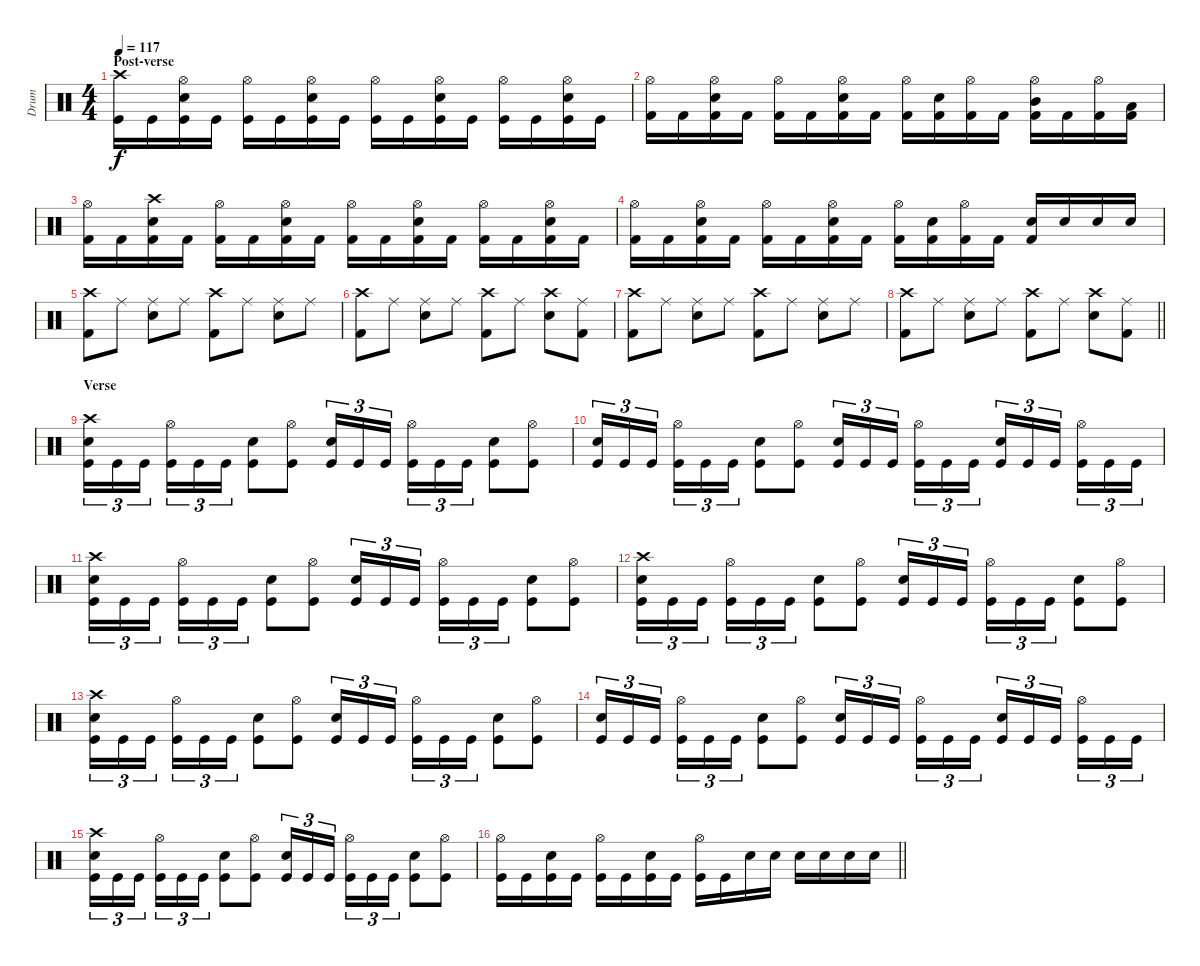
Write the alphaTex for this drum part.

\track ("Drum" "Drum") {instrument percussion}
\staff {score}
\articulation defaults
\ts (4 4)
\section ("" "Post-verse")
\tempo 117
\clef neutral
\ks c
("Crash high (hit)" "Kick (hit)").16{dy f} "Kick (hit)".16 ("Hi-Hat (open)" "Snare (hit) 2" "Kick (hit)").16 "Kick (hit)".16 ("Hi-Hat (open)" "Kick (hit)").16 "Kick (hit)".16 ("Hi-Hat (open)" "Snare (hit) 2" "Kick (hit)").16 "Kick (hit)".16 ("Hi-Hat (open)" "Kick (hit)").16 "Kick (hit)".16 ("Hi-Hat (open)" "Snare (hit) 2" "Kick (hit)").16 "Kick (hit)".16 ("Hi-Hat (open)" "Kick (hit)").16 "Kick (hit)".16 ("Hi-Hat (open)" "Snare (hit) 2" "Kick (hit)").16 "Kick (hit)".16 |
("Hi-Hat (open)" "Kick (hit) 2").16 "Kick (hit) 2".16 ("Hi-Hat (open)" "Electric Snare (hit)" "Kick (hit) 2").16 "Kick (hit) 2".16 ("Hi-Hat (open)" "Kick (hit) 2").16 "Kick (hit) 2".16 ("Hi-Hat (open)" "Electric Snare (hit)" "Kick (hit) 2").16 "Kick (hit) 2".16 ("Hi-Hat (open)" "Kick (hit) 2").16 ("Electric Snare (hit)" "Kick (hit) 2").16 ("Hi-Hat (open)" "Kick (hit) 2").16 "Kick (hit) 2".16 ("Hi-Hat (open)" "Mid Tom (hit)" "Kick (hit) 2").16 "Kick (hit) 2".16 ("Hi-Hat (open)" "Kick (hit) 2").16 ("Low Tom (hit)" "Kick (hit) 2").16 |
("Hi-Hat (open)" "Kick (hit) 2").16 "Kick (hit) 2".16 ("Crash high (hit)" "Electric Snare (hit)" "Kick (hit) 2").16 "Kick (hit) 2".16 ("Hi-Hat (open)" "Kick (hit) 2").16 "Kick (hit) 2".16 ("Hi-Hat (open)" "Electric Snare (hit)" "Kick (hit) 2").16 "Kick (hit) 2".16 ("Hi-Hat (open)" "Kick (hit) 2").16 "Kick (hit) 2".16 ("Hi-Hat (open)" "Electric Snare (hit)" "Kick (hit) 2").16 "Kick (hit) 2".16 ("Hi-Hat (open)" "Kick (hit) 2").16 "Kick (hit) 2".16 ("Hi-Hat (open)" "Electric Snare (hit)" "Kick (hit) 2").16 "Kick (hit) 2".16 |
("Hi-Hat (open)" "Kick (hit) 2").16 "Kick (hit) 2".16 ("Hi-Hat (open)" "Electric Snare (hit)" "Kick (hit) 2").16 "Kick (hit) 2".16 ("Hi-Hat (open)" "Kick (hit) 2").16 "Kick (hit) 2".16 ("Hi-Hat (open)" "Electric Snare (hit)" "Kick (hit) 2").16 "Kick (hit) 2".16 ("Hi-Hat (open)" "Kick (hit) 2").16 ("Electric Snare (hit)" "Kick (hit) 2").16 ("Hi-Hat (open)" "Kick (hit) 2").16 "Kick (hit) 2".16 ("Electric Snare (hit)" "Kick (hit) 2").16 "Electric Snare (hit)".16 "Electric Snare (hit)".16 "Electric Snare (hit)".16 |
("Crash high (hit)" "Kick (hit) 2").8 "Ride (middle)".8 ("Ride (middle)" "Electric Snare (hit)").8 "Ride (middle)".8 ("Crash high (hit)" "Kick (hit) 2").8 "Ride (middle)".8 ("Ride (middle)" "Electric Snare (hit)").8 "Ride (middle)".8 |
("Crash high (hit)" "Kick (hit) 2").8 "Ride (middle)".8 ("Ride (middle)" "Electric Snare (hit)").8 "Ride (middle)".8 ("Crash high (hit)" "Kick (hit) 2").8 "Ride (middle)".8 ("Crash high (hit)" "Electric Snare (hit)").8 ("Ride (middle)" "Kick (hit) 2").8 |
("Crash high (hit)" "Kick (hit) 2").8 "Ride (middle)".8 ("Ride (middle)" "Electric Snare (hit)").8 "Ride (middle)".8 ("Crash high (hit)" "Kick (hit) 2").8 "Ride (middle)".8 ("Ride (middle)" "Electric Snare (hit)").8 "Ride (middle)".8 |
\barLineRight lightlight
("Crash high (hit)" "Kick (hit) 2").8 "Ride (middle)".8 ("Ride (middle)" "Electric Snare (hit)").8 "Ride (middle)".8 ("Crash high (hit)" "Kick (hit) 2").8 "Ride (middle)".8 ("Crash high (hit)" "Electric Snare (hit)").8 ("Ride (middle)" "Kick (hit) 2").8 |
\section ("" "Verse")
("Crash high (hit)" "Kick (hit)" "Snare (hit) 2").16{tu (3 2)} "Kick (hit)".16{tu (3 2)} "Kick (hit)".16{tu (3 2) beam splitsecondary} ("Kick (hit)" "Hi-Hat (open)").16{tu (3 2)} "Kick (hit)".16{tu (3 2)} "Kick (hit)".16{tu (3 2)} ("Kick (hit)" "Snare (hit) 2").8 ("Kick (hit)" "Hi-Hat (open)").8 ("Kick (hit)" "Snare (hit) 2").16{tu (3 2)} "Kick (hit)".16{tu (3 2)} "Kick (hit)".16{tu (3 2) beam splitsecondary} ("Kick (hit)" "Hi-Hat (open)").16{tu (3 2)} "Kick (hit)".16{tu (3 2)} "Kick (hit)".16{tu (3 2)} ("Kick (hit)" "Snare (hit) 2").8 ("Kick (hit)" "Hi-Hat (open)").8 |
("Kick (hit)" "Snare (hit) 2").16{tu (3 2)} "Kick (hit)".16{tu (3 2)} "Kick (hit)".16{tu (3 2) beam splitsecondary} ("Kick (hit)" "Hi-Hat (open)").16{tu (3 2)} "Kick (hit)".16{tu (3 2)} "Kick (hit)".16{tu (3 2)} ("Kick (hit)" "Snare (hit) 2").8 ("Kick (hit)" "Hi-Hat (open)").8 ("Kick (hit)" "Snare (hit) 2").16{tu (3 2)} "Kick (hit)".16{tu (3 2)} "Kick (hit)".16{tu (3 2) beam splitsecondary} ("Kick (hit)" "Hi-Hat (open)").16{tu (3 2)} "Kick (hit)".16{tu (3 2)} "Kick (hit)".16{tu (3 2)} ("Kick (hit)" "Snare (hit) 2").16{tu (3 2)} "Kick (hit)".16{tu (3 2)} "Kick (hit)".16{tu (3 2) beam splitsecondary} ("Kick (hit)" "Hi-Hat (open)").16{tu (3 2)} "Kick (hit)".16{tu (3 2)} "Kick (hit)".16{tu (3 2)} |
("Crash high (hit)" "Kick (hit)" "Snare (hit) 2").16{tu (3 2)} "Kick (hit)".16{tu (3 2)} "Kick (hit)".16{tu (3 2) beam splitsecondary} ("Kick (hit)" "Hi-Hat (open)").16{tu (3 2)} "Kick (hit)".16{tu (3 2)} "Kick (hit)".16{tu (3 2)} ("Kick (hit)" "Snare (hit) 2").8 ("Kick (hit)" "Hi-Hat (open)").8 ("Kick (hit)" "Snare (hit) 2").16{tu (3 2)} "Kick (hit)".16{tu (3 2)} "Kick (hit)".16{tu (3 2) beam splitsecondary} ("Kick (hit)" "Hi-Hat (open)").16{tu (3 2)} "Kick (hit)".16{tu (3 2)} "Kick (hit)".16{tu (3 2)} ("Kick (hit)" "Snare (hit) 2").8 ("Kick (hit)" "Hi-Hat (open)").8 |
("Crash high (hit)" "Kick (hit)" "Snare (hit) 2").16{tu (3 2)} "Kick (hit)".16{tu (3 2)} "Kick (hit)".16{tu (3 2) beam splitsecondary} ("Kick (hit)" "Hi-Hat (open)").16{tu (3 2)} "Kick (hit)".16{tu (3 2)} "Kick (hit)".16{tu (3 2)} ("Kick (hit)" "Snare (hit) 2").8 ("Kick (hit)" "Hi-Hat (open)").8 ("Kick (hit)" "Snare (hit) 2").16{tu (3 2)} "Kick (hit)".16{tu (3 2)} "Kick (hit)".16{tu (3 2) beam splitsecondary} ("Kick (hit)" "Hi-Hat (open)").16{tu (3 2)} "Kick (hit)".16{tu (3 2)} "Kick (hit)".16{tu (3 2)} ("Kick (hit)" "Snare (hit) 2").8 ("Kick (hit)" "Hi-Hat (open)").8 |
("Crash high (hit)" "Kick (hit)" "Snare (hit) 2").16{tu (3 2)} "Kick (hit)".16{tu (3 2)} "Kick (hit)".16{tu (3 2) beam splitsecondary} ("Kick (hit)" "Hi-Hat (open)").16{tu (3 2)} "Kick (hit)".16{tu (3 2)} "Kick (hit)".16{tu (3 2)} ("Kick (hit)" "Snare (hit) 2").8 ("Kick (hit)" "Hi-Hat (open)").8 ("Kick (hit)" "Snare (hit) 2").16{tu (3 2)} "Kick (hit)".16{tu (3 2)} "Kick (hit)".16{tu (3 2) beam splitsecondary} ("Kick (hit)" "Hi-Hat (open)").16{tu (3 2)} "Kick (hit)".16{tu (3 2)} "Kick (hit)".16{tu (3 2)} ("Kick (hit)" "Snare (hit) 2").8 ("Kick (hit)" "Hi-Hat (open)").8 |
("Kick (hit)" "Snare (hit) 2").16{tu (3 2)} "Kick (hit)".16{tu (3 2)} "Kick (hit)".16{tu (3 2) beam splitsecondary} ("Kick (hit)" "Hi-Hat (open)").16{tu (3 2)} "Kick (hit)".16{tu (3 2)} "Kick (hit)".16{tu (3 2)} ("Kick (hit)" "Snare (hit) 2").8 ("Kick (hit)" "Hi-Hat (open)").8 ("Kick (hit)" "Snare (hit) 2").16{tu (3 2)} "Kick (hit)".16{tu (3 2)} "Kick (hit)".16{tu (3 2) beam splitsecondary} ("Kick (hit)" "Hi-Hat (open)").16{tu (3 2)} "Kick (hit)".16{tu (3 2)} "Kick (hit)".16{tu (3 2)} ("Kick (hit)" "Snare (hit) 2").16{tu (3 2)} "Kick (hit)".16{tu (3 2)} "Kick (hit)".16{tu (3 2) beam splitsecondary} ("Kick (hit)" "Hi-Hat (open)").16{tu (3 2)} "Kick (hit)".16{tu (3 2)} "Kick (hit)".16{tu (3 2)} |
("Crash high (hit)" "Kick (hit)" "Snare (hit) 2").16{tu (3 2)} "Kick (hit)".16{tu (3 2)} "Kick (hit)".16{tu (3 2) beam splitsecondary} ("Kick (hit)" "Hi-Hat (open)").16{tu (3 2)} "Kick (hit)".16{tu (3 2)} "Kick (hit)".16{tu (3 2)} ("Kick (hit)" "Snare (hit) 2").8 ("Kick (hit)" "Hi-Hat (open)").8 ("Kick (hit)" "Snare (hit) 2").16{tu (3 2)} "Kick (hit)".16{tu (3 2)} "Kick (hit)".16{tu (3 2) beam splitsecondary} ("Kick (hit)" "Hi-Hat (open)").16{tu (3 2)} "Kick (hit)".16{tu (3 2)} "Kick (hit)".16{tu (3 2)} ("Kick (hit)" "Snare (hit) 2").8 ("Kick (hit)" "Hi-Hat (open)").8 |
\barLineRight lightlight
("Kick (hit)" "Hi-Hat (open)").16 "Kick (hit)".16 ("Kick (hit)" "Snare (hit) 2").16 "Kick (hit)".16 ("Kick (hit)" "Hi-Hat (open)").16 "Kick (hit)".16 ("Kick (hit)" "Snare (hit) 2").16 "Kick (hit)".16 ("Kick (hit)" "Hi-Hat (open)").16 "Kick (hit)".16 "Snare (hit) 2".16 "Snare (hit) 2".16 "Snare (hit) 2".16 "Snare (hit) 2".16 "Snare (hit) 2".16 "Snare (hit) 2".16
